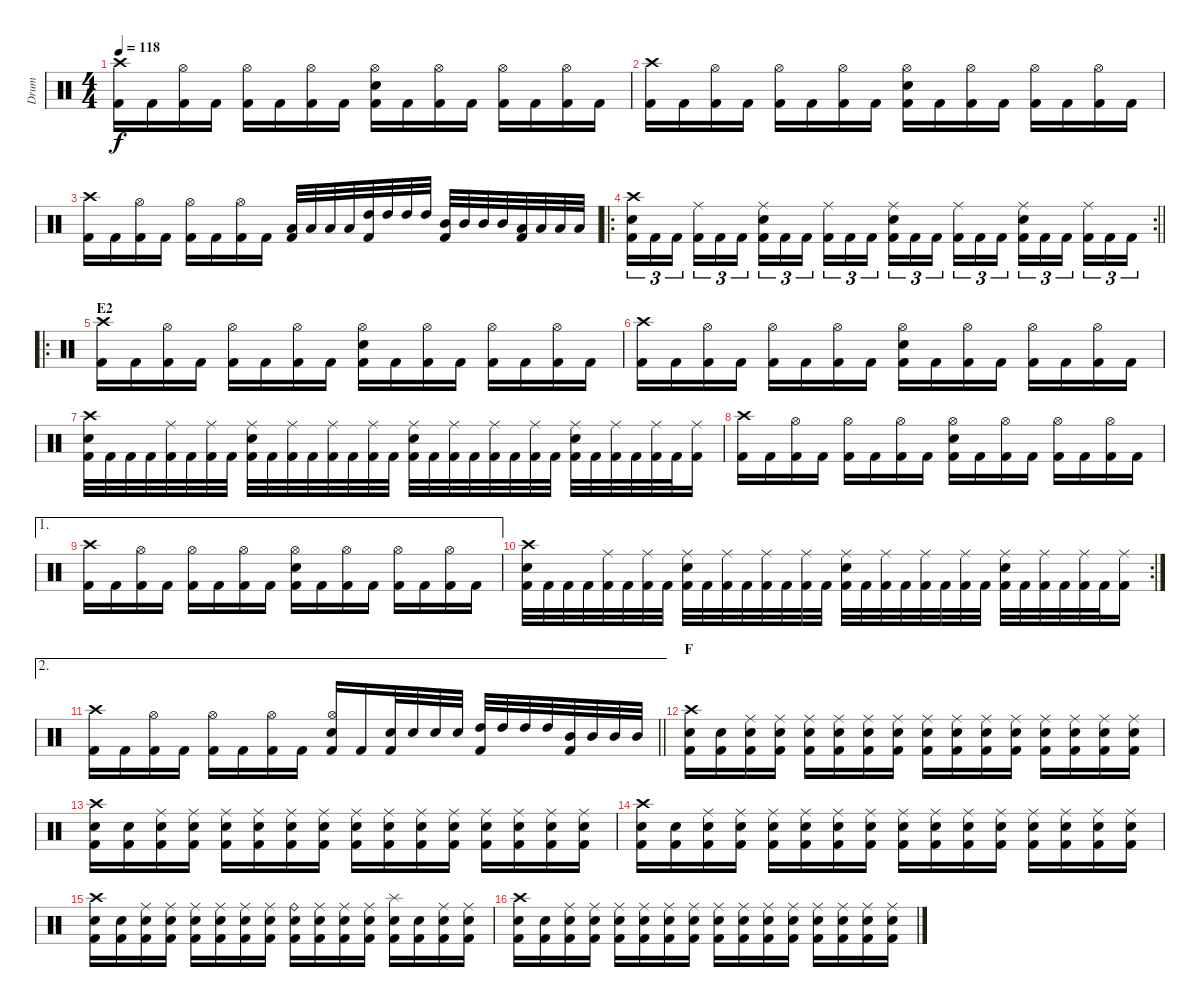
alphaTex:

\track ("Drum" "Drum") {instrument percussion}
\staff {score}
\articulation defaults
\ts (4 4)
\tempo 118
\clef neutral
\ks c
("Crash high (hit)" "Kick (hit) 2").16{dy f} "Kick (hit) 2".16 ("Hi-Hat (open)" "Kick (hit) 2").16 "Kick (hit) 2".16 ("Hi-Hat (open)" "Kick (hit) 2").16 "Kick (hit) 2".16 ("Hi-Hat (open)" "Kick (hit) 2").16 "Kick (hit) 2".16 ("Hi-Hat (open)" "Electric Snare (hit)" "Kick (hit) 2").16 "Kick (hit) 2".16 ("Hi-Hat (open)" "Kick (hit) 2").16 "Kick (hit) 2".16 ("Hi-Hat (open)" "Kick (hit) 2").16 "Kick (hit) 2".16 ("Hi-Hat (open)" "Kick (hit) 2").16 "Kick (hit) 2".16 |
("Crash high (hit)" "Kick (hit) 2").16 "Kick (hit) 2".16 ("Hi-Hat (open)" "Kick (hit) 2").16 "Kick (hit) 2".16 ("Hi-Hat (open)" "Kick (hit) 2").16 "Kick (hit) 2".16 ("Hi-Hat (open)" "Kick (hit) 2").16 "Kick (hit) 2".16 ("Hi-Hat (open)" "Electric Snare (hit)" "Kick (hit) 2").16 "Kick (hit) 2".16 ("Hi-Hat (open)" "Kick (hit) 2").16 "Kick (hit) 2".16 ("Hi-Hat (open)" "Kick (hit) 2").16 "Kick (hit) 2".16 ("Hi-Hat (open)" "Kick (hit) 2").16 "Kick (hit) 2".16 |
("Crash high (hit)" "Kick (hit) 2").16 "Kick (hit) 2".16 ("Hi-Hat (open)" "Kick (hit) 2").16 "Kick (hit) 2".16 ("Hi-Hat (open)" "Kick (hit) 2").16 "Kick (hit) 2".16 ("Hi-Hat (open)" "Kick (hit) 2").16 "Kick (hit) 2".16 ("Low Tom (hit)" "Kick (hit) 2").32 "Low Tom (hit)".32 "Low Tom (hit)".32 "Low Tom (hit)".32 ("High Tom (hit)" "Kick (hit) 2").32 "High Tom (hit)".32 "High Tom (hit)".32 "High Tom (hit)".32 ("Mid Tom (hit)" "Kick (hit) 2").32 "Mid Tom (hit)".32 "Mid Tom (hit)".32 "Mid Tom (hit)".32 ("Low Tom (hit)" "Kick (hit) 2").32 "Low Tom (hit)".32 "Low Tom (hit)".32 "Low Tom (hit)".32 |
\ro
\rc 2
\barLineRight lightlight
("Crash high (hit)" "Electric Snare (hit)" "Kick (hit) 2").16{tu (3 2)} "Kick (hit) 2".16{tu (3 2)} "Kick (hit) 2".16{tu (3 2) beam splitsecondary} ("Ride (middle)" "Kick (hit) 2").16{tu (3 2)} "Kick (hit) 2".16{tu (3 2)} "Kick (hit) 2".16{tu (3 2)} ("Ride (middle)" "Electric Snare (hit)" "Kick (hit) 2").16{tu (3 2)} "Kick (hit) 2".16{tu (3 2)} "Kick (hit) 2".16{tu (3 2) beam splitsecondary} ("Ride (middle)" "Kick (hit) 2").16{tu (3 2)} "Kick (hit) 2".16{tu (3 2)} "Kick (hit) 2".16{tu (3 2)} ("Ride (middle)" "Electric Snare (hit)" "Kick (hit) 2").16{tu (3 2)} "Kick (hit) 2".16{tu (3 2)} "Kick (hit) 2".16{tu (3 2) beam splitsecondary} ("Ride (middle)" "Kick (hit) 2").16{tu (3 2)} "Kick (hit) 2".16{tu (3 2)} "Kick (hit) 2".16{tu (3 2)} ("Ride (middle)" "Electric Snare (hit)" "Kick (hit) 2").16{tu (3 2)} "Kick (hit) 2".16{tu (3 2)} "Kick (hit) 2".16{tu (3 2) beam splitsecondary} ("Ride (middle)" "Kick (hit) 2").16{tu (3 2)} "Kick (hit) 2".16{tu (3 2)} "Kick (hit) 2".16{tu (3 2)} |
\ro
\section ("" "E2")
("Crash high (hit)" "Kick (hit) 2").16 "Kick (hit) 2".16 ("Hi-Hat (open)" "Kick (hit) 2").16 "Kick (hit) 2".16 ("Hi-Hat (open)" "Kick (hit) 2").16 "Kick (hit) 2".16 ("Hi-Hat (open)" "Kick (hit) 2").16 "Kick (hit) 2".16 ("Hi-Hat (open)" "Electric Snare (hit)" "Kick (hit) 2").16 "Kick (hit) 2".16 ("Hi-Hat (open)" "Kick (hit) 2").16 "Kick (hit) 2".16 ("Hi-Hat (open)" "Kick (hit) 2").16 "Kick (hit) 2".16 ("Hi-Hat (open)" "Kick (hit) 2").16 "Kick (hit) 2".16 |
("Crash high (hit)" "Kick (hit) 2").16 "Kick (hit) 2".16 ("Hi-Hat (open)" "Kick (hit) 2").16 "Kick (hit) 2".16 ("Hi-Hat (open)" "Kick (hit) 2").16 "Kick (hit) 2".16 ("Hi-Hat (open)" "Kick (hit) 2").16 "Kick (hit) 2".16 ("Hi-Hat (open)" "Electric Snare (hit)" "Kick (hit) 2").16 "Kick (hit) 2".16 ("Hi-Hat (open)" "Kick (hit) 2").16 "Kick (hit) 2".16 ("Hi-Hat (open)" "Kick (hit) 2").16 "Kick (hit) 2".16 ("Hi-Hat (open)" "Kick (hit) 2").16 "Kick (hit) 2".16 |
("Crash high (hit)" "Electric Snare (hit)" "Kick (hit) 2").32 "Kick (hit) 2".32 "Kick (hit) 2".32 "Kick (hit) 2".32 ("Ride (middle)" "Kick (hit) 2").32 "Kick (hit) 2".32 ("Ride (middle)" "Kick (hit) 2").32 "Kick (hit) 2".32 ("Ride (middle)" "Electric Snare (hit)" "Kick (hit) 2").32 "Kick (hit) 2".32 ("Ride (middle)" "Kick (hit) 2").32 "Kick (hit) 2".32 ("Ride (middle)" "Kick (hit) 2").32 "Kick (hit) 2".32 ("Ride (middle)" "Kick (hit) 2").32 "Kick (hit) 2".32 ("Ride (middle)" "Electric Snare (hit)" "Kick (hit) 2").32 "Kick (hit) 2".32 ("Ride (middle)" "Kick (hit) 2").32 "Kick (hit) 2".32 ("Ride (middle)" "Kick (hit) 2").32 "Kick (hit) 2".32 ("Ride (middle)" "Kick (hit) 2").32 "Kick (hit) 2".32 ("Ride (middle)" "Electric Snare (hit)" "Kick (hit) 2").32 "Kick (hit) 2".32 ("Ride (middle)" "Kick (hit) 2").32 "Kick (hit) 2".32 ("Ride (middle)" "Kick (hit) 2").32 "Kick (hit) 2".32 ("Ride (middle)" "Kick (hit) 2").16 |
("Crash high (hit)" "Kick (hit) 2").16 "Kick (hit) 2".16 ("Hi-Hat (open)" "Kick (hit) 2").16 "Kick (hit) 2".16 ("Hi-Hat (open)" "Kick (hit) 2").16 "Kick (hit) 2".16 ("Hi-Hat (open)" "Kick (hit) 2").16 "Kick (hit) 2".16 ("Hi-Hat (open)" "Electric Snare (hit)" "Kick (hit) 2").16 "Kick (hit) 2".16 ("Hi-Hat (open)" "Kick (hit) 2").16 "Kick (hit) 2".16 ("Hi-Hat (open)" "Kick (hit) 2").16 "Kick (hit) 2".16 ("Hi-Hat (open)" "Kick (hit) 2").16 "Kick (hit) 2".16 |
\ae 1
("Crash high (hit)" "Kick (hit) 2").16 "Kick (hit) 2".16 ("Hi-Hat (open)" "Kick (hit) 2").16 "Kick (hit) 2".16 ("Hi-Hat (open)" "Kick (hit) 2").16 "Kick (hit) 2".16 ("Hi-Hat (open)" "Kick (hit) 2").16 "Kick (hit) 2".16 ("Hi-Hat (open)" "Electric Snare (hit)" "Kick (hit) 2").16 "Kick (hit) 2".16 ("Hi-Hat (open)" "Kick (hit) 2").16 "Kick (hit) 2".16 ("Hi-Hat (open)" "Kick (hit) 2").16 "Kick (hit) 2".16 ("Hi-Hat (open)" "Kick (hit) 2").16 "Kick (hit) 2".16 |
\rc 2
("Crash high (hit)" "Electric Snare (hit)" "Kick (hit) 2").32 "Kick (hit) 2".32 "Kick (hit) 2".32 "Kick (hit) 2".32 ("Ride (middle)" "Kick (hit) 2").32 "Kick (hit) 2".32 ("Ride (middle)" "Kick (hit) 2").32 "Kick (hit) 2".32 ("Ride (middle)" "Electric Snare (hit)" "Kick (hit) 2").32 "Kick (hit) 2".32 ("Ride (middle)" "Kick (hit) 2").32 "Kick (hit) 2".32 ("Ride (middle)" "Kick (hit) 2").32 "Kick (hit) 2".32 ("Ride (middle)" "Kick (hit) 2").32 "Kick (hit) 2".32 ("Ride (middle)" "Electric Snare (hit)" "Kick (hit) 2").32 "Kick (hit) 2".32 ("Ride (middle)" "Kick (hit) 2").32 "Kick (hit) 2".32 ("Ride (middle)" "Kick (hit) 2").32 "Kick (hit) 2".32 ("Ride (middle)" "Kick (hit) 2").32 "Kick (hit) 2".32 ("Ride (middle)" "Electric Snare (hit)" "Kick (hit) 2").32 "Kick (hit) 2".32 ("Ride (middle)" "Kick (hit) 2").32 "Kick (hit) 2".32 ("Ride (middle)" "Kick (hit) 2").32 "Kick (hit) 2".32 ("Ride (middle)" "Kick (hit) 2").16 |
\ae 2
\barLineRight lightlight
("Crash high (hit)" "Kick (hit) 2").16 "Kick (hit) 2".16 ("Hi-Hat (open)" "Kick (hit) 2").16 "Kick (hit) 2".16 ("Hi-Hat (open)" "Kick (hit) 2").16 "Kick (hit) 2".16 ("Hi-Hat (open)" "Kick (hit) 2").16 "Kick (hit) 2".16 ("Hi-Hat (open)" "Electric Snare (hit)" "Kick (hit) 2").16 "Kick (hit) 2".16 ("Electric Snare (hit)" "Kick (hit) 2").32 "Electric Snare (hit)".32 "Electric Snare (hit)".32 "Electric Snare (hit)".32 ("High Tom (hit)" "Kick (hit) 2").32 "High Tom (hit)".32 "High Tom (hit)".32 "High Tom (hit)".32 ("Mid Tom (hit)" "Kick (hit) 2").32 "Mid Tom (hit)".32 "Mid Tom (hit)".32 "Mid Tom (hit)".32 |
\section ("" "F")
("Crash high (hit)" "Electric Snare (hit)" "Kick (hit) 2").16 ("Electric Snare (hit)" "Kick (hit) 2").16 ("Ride (middle)" "Electric Snare (hit)" "Kick (hit) 2").16 ("Ride (middle)" "Electric Snare (hit)" "Kick (hit) 2").16 ("Ride (middle)" "Electric Snare (hit)" "Kick (hit) 2").16 ("Ride (middle)" "Electric Snare (hit)" "Kick (hit) 2").16 ("Ride (middle)" "Electric Snare (hit)" "Kick (hit) 2").16 ("Ride (middle)" "Electric Snare (hit)" "Kick (hit) 2").16 ("Ride (middle)" "Electric Snare (hit)" "Kick (hit) 2").16 ("Ride (middle)" "Electric Snare (hit)" "Kick (hit) 2").16 ("Ride (middle)" "Electric Snare (hit)" "Kick (hit) 2").16 ("Ride (middle)" "Electric Snare (hit)" "Kick (hit) 2").16 ("Ride (middle)" "Electric Snare (hit)" "Kick (hit) 2").16 ("Ride (middle)" "Electric Snare (hit)" "Kick (hit) 2").16 ("Ride (middle)" "Electric Snare (hit)" "Kick (hit) 2").16 ("Ride (middle)" "Electric Snare (hit)" "Kick (hit) 2").16 |
("Crash high (hit)" "Electric Snare (hit)" "Kick (hit) 2").16 ("Electric Snare (hit)" "Kick (hit) 2").16 ("Ride (middle)" "Electric Snare (hit)" "Kick (hit) 2").16 ("Ride (middle)" "Electric Snare (hit)" "Kick (hit) 2").16 ("Ride (middle)" "Electric Snare (hit)" "Kick (hit) 2").16 ("Ride (middle)" "Electric Snare (hit)" "Kick (hit) 2").16 ("Ride (middle)" "Electric Snare (hit)" "Kick (hit) 2").16 ("Ride (middle)" "Electric Snare (hit)" "Kick (hit) 2").16 ("Ride (middle)" "Electric Snare (hit)" "Kick (hit) 2").16 ("Ride (middle)" "Electric Snare (hit)" "Kick (hit) 2").16 ("Ride (middle)" "Electric Snare (hit)" "Kick (hit) 2").16 ("Ride (middle)" "Electric Snare (hit)" "Kick (hit) 2").16 ("Ride (middle)" "Electric Snare (hit)" "Kick (hit) 2").16 ("Ride (middle)" "Electric Snare (hit)" "Kick (hit) 2").16 ("Ride (middle)" "Electric Snare (hit)" "Kick (hit) 2").16 ("Ride (middle)" "Electric Snare (hit)" "Kick (hit) 2").16 |
("Crash high (hit)" "Electric Snare (hit)" "Kick (hit) 2").16 ("Electric Snare (hit)" "Kick (hit) 2").16 ("Ride (middle)" "Electric Snare (hit)" "Kick (hit) 2").16 ("Ride (middle)" "Electric Snare (hit)" "Kick (hit) 2").16 ("Ride (middle)" "Electric Snare (hit)" "Kick (hit) 2").16 ("Ride (middle)" "Electric Snare (hit)" "Kick (hit) 2").16 ("Ride (middle)" "Electric Snare (hit)" "Kick (hit) 2").16 ("Ride (middle)" "Electric Snare (hit)" "Kick (hit) 2").16 ("Ride (middle)" "Electric Snare (hit)" "Kick (hit) 2").16 ("Ride (middle)" "Electric Snare (hit)" "Kick (hit) 2").16 ("Ride (middle)" "Electric Snare (hit)" "Kick (hit) 2").16 ("Ride (middle)" "Electric Snare (hit)" "Kick (hit) 2").16 ("Ride (middle)" "Electric Snare (hit)" "Kick (hit) 2").16 ("Ride (middle)" "Electric Snare (hit)" "Kick (hit) 2").16 ("Ride (middle)" "Electric Snare (hit)" "Kick (hit) 2").16 ("Ride (middle)" "Electric Snare (hit)" "Kick (hit) 2").16 |
("Crash high (hit)" "Electric Snare (hit)" "Kick (hit) 2").16 ("Electric Snare (hit)" "Kick (hit) 2").16 ("Ride (middle)" "Electric Snare (hit)" "Kick (hit) 2").16 ("Ride (middle)" "Electric Snare (hit)" "Kick (hit) 2").16 ("Ride (middle)" "Electric Snare (hit)" "Kick (hit) 2").16 ("Ride (middle)" "Electric Snare (hit)" "Kick (hit) 2").16 ("Ride (middle)" "Electric Snare (hit)" "Kick (hit) 2").16 ("Ride (middle)" "Electric Snare (hit)" "Kick (hit) 2").16 ("Ride (bell)" "Electric Snare (hit)" "Kick (hit) 2").16 ("Ride (middle)" "Electric Snare (hit)" "Kick (hit) 2").16 ("Ride (middle)" "Electric Snare (hit)" "Kick (hit) 2").16 ("Ride (middle)" "Electric Snare (hit)" "Kick (hit) 2").16 ("Splash (hit)" "Electric Snare (hit)" "Kick (hit) 2").16 ("Electric Snare (hit)" "Kick (hit) 2").16 ("Ride (middle)" "Electric Snare (hit)" "Kick (hit) 2").16 ("Ride (middle)" "Electric Snare (hit)" "Kick (hit) 2").16 |
("Crash high (hit)" "Electric Snare (hit)" "Kick (hit) 2").16 ("Electric Snare (hit)" "Kick (hit) 2").16 ("Ride (middle)" "Electric Snare (hit)" "Kick (hit) 2").16 ("Ride (middle)" "Electric Snare (hit)" "Kick (hit) 2").16 ("Ride (middle)" "Electric Snare (hit)" "Kick (hit) 2").16 ("Ride (middle)" "Electric Snare (hit)" "Kick (hit) 2").16 ("Ride (middle)" "Electric Snare (hit)" "Kick (hit) 2").16 ("Ride (middle)" "Electric Snare (hit)" "Kick (hit) 2").16 ("Ride (middle)" "Electric Snare (hit)" "Kick (hit) 2").16 ("Ride (middle)" "Electric Snare (hit)" "Kick (hit) 2").16 ("Ride (middle)" "Electric Snare (hit)" "Kick (hit) 2").16 ("Ride (middle)" "Electric Snare (hit)" "Kick (hit) 2").16 ("Ride (middle)" "Electric Snare (hit)" "Kick (hit) 2").16 ("Ride (middle)" "Electric Snare (hit)" "Kick (hit) 2").16 ("Ride (middle)" "Electric Snare (hit)" "Kick (hit) 2").16 ("Ride (middle)" "Electric Snare (hit)" "Kick (hit) 2").16
